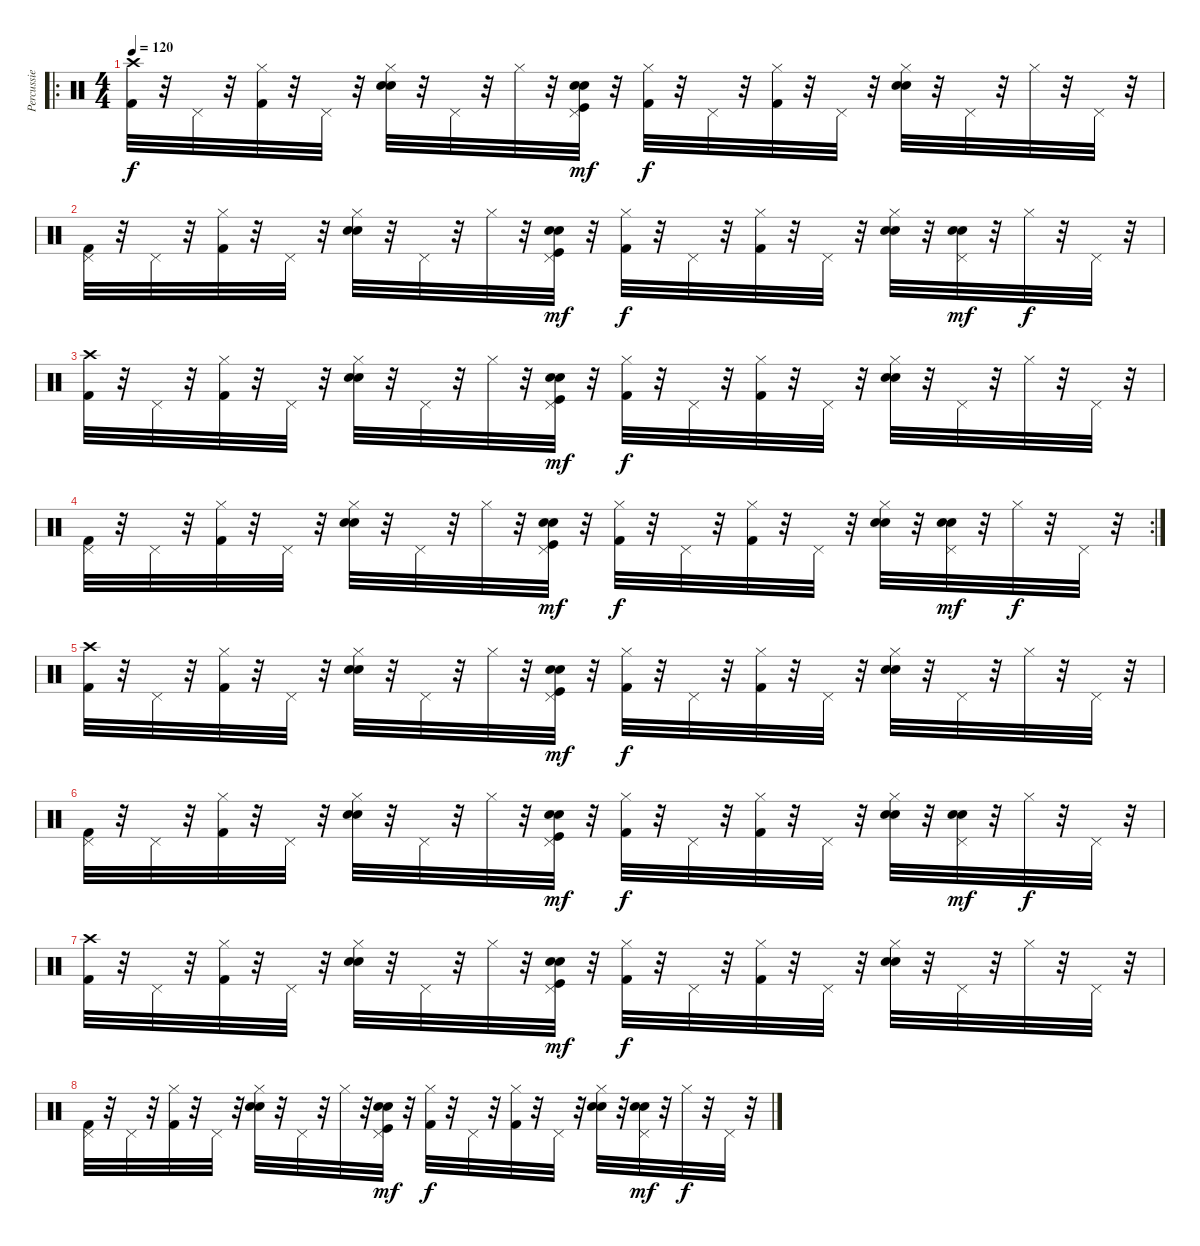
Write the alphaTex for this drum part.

\track ("Percussie" "Percussie") {instrument percussion}
\staff {score}
\articulation defaults
\ro
\ts (4 4)
\tempo 120
\clef neutral
\ks c
("Crash high (hit)" "Kick (hit) 2").32{dy f} r.32 "Pedal Hi-Hat (hit)".32 r.32 ("Hi-Hat (closed)" "Kick (hit) 2").32 r.32 "Pedal Hi-Hat (hit)".32 r.32 ("Hi-Hat (closed)" "Hand Clap (hit)" "Electric Snare (hit)").32 r.32 "Pedal Hi-Hat (hit)".32 r.32 "Hi-Hat (closed)".32 r.32 ("Hand Clap (hit)" "Electric Snare (hit)" "Pedal Hi-Hat (hit)" "Kick (hit)").32{dy mf} r.32 ("Hi-Hat (closed)" "Kick (hit) 2").32{dy f} r.32 "Pedal Hi-Hat (hit)".32 r.32 ("Hi-Hat (closed)" "Kick (hit) 2").32 r.32 "Pedal Hi-Hat (hit)".32 r.32 ("Hi-Hat (closed)" "Hand Clap (hit)" "Electric Snare (hit)").32 r.32 "Pedal Hi-Hat (hit)".32 r.32 "Hi-Hat (closed)".32 r.32 "Pedal Hi-Hat (hit)".32 r.32 |
("Pedal Hi-Hat (hit)" "Kick (hit) 2").32 r.32 "Pedal Hi-Hat (hit)".32 r.32 ("Hi-Hat (closed)" "Kick (hit) 2").32 r.32 "Pedal Hi-Hat (hit)".32 r.32 ("Hi-Hat (closed)" "Hand Clap (hit)" "Electric Snare (hit)").32 r.32 "Pedal Hi-Hat (hit)".32 r.32 "Hi-Hat (closed)".32 r.32 ("Hand Clap (hit)" "Electric Snare (hit)" "Pedal Hi-Hat (hit)" "Kick (hit)").32{dy mf} r.32 ("Hi-Hat (closed)" "Kick (hit) 2").32{dy f} r.32 "Pedal Hi-Hat (hit)".32 r.32 ("Hi-Hat (closed)" "Kick (hit) 2").32 r.32 "Pedal Hi-Hat (hit)".32 r.32 ("Hi-Hat (closed)" "Hand Clap (hit)" "Electric Snare (hit)").32 r.32 ("Hand Clap (hit)" "Electric Snare (hit)" "Pedal Hi-Hat (hit)").32{dy mf} r.32 "Hi-Hat (closed)".32{dy f} r.32 "Pedal Hi-Hat (hit)".32 r.32 |
("Crash high (hit)" "Kick (hit) 2").32 r.32 "Pedal Hi-Hat (hit)".32 r.32 ("Hi-Hat (closed)" "Kick (hit) 2").32 r.32 "Pedal Hi-Hat (hit)".32 r.32 ("Hi-Hat (closed)" "Hand Clap (hit)" "Electric Snare (hit)").32 r.32 "Pedal Hi-Hat (hit)".32 r.32 "Hi-Hat (closed)".32 r.32 ("Hand Clap (hit)" "Electric Snare (hit)" "Pedal Hi-Hat (hit)" "Kick (hit)").32{dy mf} r.32 ("Hi-Hat (closed)" "Kick (hit) 2").32{dy f} r.32 "Pedal Hi-Hat (hit)".32 r.32 ("Hi-Hat (closed)" "Kick (hit) 2").32 r.32 "Pedal Hi-Hat (hit)".32 r.32 ("Hi-Hat (closed)" "Hand Clap (hit)" "Electric Snare (hit)").32 r.32 "Pedal Hi-Hat (hit)".32 r.32 "Hi-Hat (closed)".32 r.32 "Pedal Hi-Hat (hit)".32 r.32 |
\rc 2
("Pedal Hi-Hat (hit)" "Kick (hit) 2").32 r.32 "Pedal Hi-Hat (hit)".32 r.32 ("Hi-Hat (closed)" "Kick (hit) 2").32 r.32 "Pedal Hi-Hat (hit)".32 r.32 ("Hi-Hat (closed)" "Hand Clap (hit)" "Electric Snare (hit)").32 r.32 "Pedal Hi-Hat (hit)".32 r.32 "Hi-Hat (closed)".32 r.32 ("Hand Clap (hit)" "Electric Snare (hit)" "Pedal Hi-Hat (hit)" "Kick (hit)").32{dy mf} r.32 ("Hi-Hat (closed)" "Kick (hit) 2").32{dy f} r.32 "Pedal Hi-Hat (hit)".32 r.32 ("Hi-Hat (closed)" "Kick (hit) 2").32 r.32 "Pedal Hi-Hat (hit)".32 r.32 ("Hi-Hat (closed)" "Hand Clap (hit)" "Electric Snare (hit)").32 r.32 ("Hand Clap (hit)" "Electric Snare (hit)" "Pedal Hi-Hat (hit)").32{dy mf} r.32 "Hi-Hat (closed)".32{dy f} r.32 "Pedal Hi-Hat (hit)".32 r.32 |
("Crash high (hit)" "Kick (hit) 2").32 r.32 "Pedal Hi-Hat (hit)".32 r.32 ("Hi-Hat (closed)" "Kick (hit) 2").32 r.32 "Pedal Hi-Hat (hit)".32 r.32 ("Hi-Hat (closed)" "Hand Clap (hit)" "Electric Snare (hit)").32 r.32 "Pedal Hi-Hat (hit)".32 r.32 "Hi-Hat (closed)".32 r.32 ("Hand Clap (hit)" "Electric Snare (hit)" "Pedal Hi-Hat (hit)" "Kick (hit)").32{dy mf} r.32 ("Hi-Hat (closed)" "Kick (hit) 2").32{dy f} r.32 "Pedal Hi-Hat (hit)".32 r.32 ("Hi-Hat (closed)" "Kick (hit) 2").32 r.32 "Pedal Hi-Hat (hit)".32 r.32 ("Hi-Hat (closed)" "Hand Clap (hit)" "Electric Snare (hit)").32 r.32 "Pedal Hi-Hat (hit)".32 r.32 "Hi-Hat (closed)".32 r.32 "Pedal Hi-Hat (hit)".32 r.32 |
("Pedal Hi-Hat (hit)" "Kick (hit) 2").32 r.32 "Pedal Hi-Hat (hit)".32 r.32 ("Hi-Hat (closed)" "Kick (hit) 2").32 r.32 "Pedal Hi-Hat (hit)".32 r.32 ("Hi-Hat (closed)" "Hand Clap (hit)" "Electric Snare (hit)").32 r.32 "Pedal Hi-Hat (hit)".32 r.32 "Hi-Hat (closed)".32 r.32 ("Hand Clap (hit)" "Electric Snare (hit)" "Pedal Hi-Hat (hit)" "Kick (hit)").32{dy mf} r.32 ("Hi-Hat (closed)" "Kick (hit) 2").32{dy f} r.32 "Pedal Hi-Hat (hit)".32 r.32 ("Hi-Hat (closed)" "Kick (hit) 2").32 r.32 "Pedal Hi-Hat (hit)".32 r.32 ("Hi-Hat (closed)" "Hand Clap (hit)" "Electric Snare (hit)").32 r.32 ("Hand Clap (hit)" "Electric Snare (hit)" "Pedal Hi-Hat (hit)").32{dy mf} r.32 "Hi-Hat (closed)".32{dy f} r.32 "Pedal Hi-Hat (hit)".32 r.32 |
("Crash high (hit)" "Kick (hit) 2").32 r.32 "Pedal Hi-Hat (hit)".32 r.32 ("Hi-Hat (closed)" "Kick (hit) 2").32 r.32 "Pedal Hi-Hat (hit)".32 r.32 ("Hi-Hat (closed)" "Hand Clap (hit)" "Electric Snare (hit)").32 r.32 "Pedal Hi-Hat (hit)".32 r.32 "Hi-Hat (closed)".32 r.32 ("Hand Clap (hit)" "Electric Snare (hit)" "Pedal Hi-Hat (hit)" "Kick (hit)").32{dy mf} r.32 ("Hi-Hat (closed)" "Kick (hit) 2").32{dy f} r.32 "Pedal Hi-Hat (hit)".32 r.32 ("Hi-Hat (closed)" "Kick (hit) 2").32 r.32 "Pedal Hi-Hat (hit)".32 r.32 ("Hi-Hat (closed)" "Hand Clap (hit)" "Electric Snare (hit)").32 r.32 "Pedal Hi-Hat (hit)".32 r.32 "Hi-Hat (closed)".32 r.32 "Pedal Hi-Hat (hit)".32 r.32 |
("Pedal Hi-Hat (hit)" "Kick (hit) 2").32 r.32 "Pedal Hi-Hat (hit)".32 r.32 ("Hi-Hat (closed)" "Kick (hit) 2").32 r.32 "Pedal Hi-Hat (hit)".32 r.32 ("Hi-Hat (closed)" "Hand Clap (hit)" "Electric Snare (hit)").32 r.32 "Pedal Hi-Hat (hit)".32 r.32 "Hi-Hat (closed)".32 r.32 ("Hand Clap (hit)" "Electric Snare (hit)" "Pedal Hi-Hat (hit)" "Kick (hit)").32{dy mf} r.32 ("Hi-Hat (closed)" "Kick (hit) 2").32{dy f} r.32 "Pedal Hi-Hat (hit)".32 r.32 ("Hi-Hat (closed)" "Kick (hit) 2").32 r.32 "Pedal Hi-Hat (hit)".32 r.32 ("Hi-Hat (closed)" "Hand Clap (hit)" "Electric Snare (hit)").32 r.32 ("Hand Clap (hit)" "Electric Snare (hit)" "Pedal Hi-Hat (hit)").32{dy mf} r.32 "Hi-Hat (closed)".32{dy f} r.32 "Pedal Hi-Hat (hit)".32 r.32
